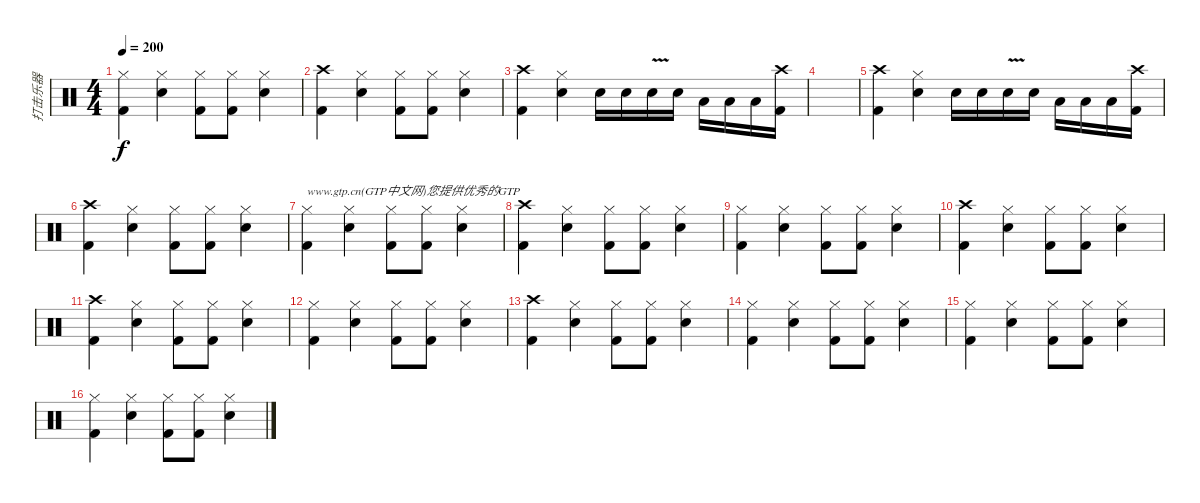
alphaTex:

\track ("打击乐器" "打击乐器") {instrument percussion}
\staff {score}
\articulation defaults
\ts (4 4)
\tempo 200
\clef neutral
\ks c
("Hi-Hat (closed)" "Kick (hit) 2").4{dy f} ("Hi-Hat (closed)" "Snare (hit) 2").4 ("Hi-Hat (closed)" "Kick (hit) 2").8 ("Hi-Hat (closed)" "Kick (hit) 2").8 ("Hi-Hat (closed)" "Snare (hit) 2").4 |
("Crash high (hit)" "Kick (hit) 2").4 ("Hi-Hat (closed)" "Snare (hit) 2").4 ("Hi-Hat (closed)" "Kick (hit) 2").8 ("Hi-Hat (closed)" "Kick (hit) 2").8 ("Hi-Hat (closed)" "Snare (hit) 2").4 |
("Crash high (hit)" "Kick (hit) 2").4 ("Hi-Hat (closed)" "Snare (hit) 2").4 "Snare (hit) 2".16 "Snare (hit) 2".16 "Snare (hit) 2"{v}.16 "Snare (hit) 2".16 "Low Floor Tom (hit)".16 "Low Floor Tom (hit)".16 "Low Tom (hit)".16 ("Crash high (hit)" "Kick (hit) 2").16 |
|
("Crash high (hit)" "Kick (hit) 2").4 ("Hi-Hat (closed)" "Snare (hit) 2").4 "Snare (hit) 2".16 "Snare (hit) 2".16 "Snare (hit) 2"{v}.16 "Snare (hit) 2".16 "Low Floor Tom (hit)".16 "Low Floor Tom (hit)".16 "Low Tom (hit)".16 ("Crash high (hit)" "Kick (hit) 2").16 |
("Crash high (hit)" "Kick (hit) 2").4 ("Hi-Hat (closed)" "Snare (hit) 2").4 ("Hi-Hat (closed)" "Kick (hit) 2").8 ("Hi-Hat (closed)" "Kick (hit) 2").8 ("Hi-Hat (closed)" "Snare (hit) 2").4 |
("Hi-Hat (closed)" "Kick (hit) 2").4{txt "www.gtp.cn(GTP中文网)您提供优秀的GTP"} ("Hi-Hat (closed)" "Snare (hit) 2").4 ("Hi-Hat (closed)" "Kick (hit) 2").8 ("Hi-Hat (closed)" "Kick (hit) 2").8 ("Hi-Hat (closed)" "Snare (hit) 2").4 |
("Crash high (hit)" "Kick (hit) 2").4 ("Hi-Hat (closed)" "Snare (hit) 2").4 ("Hi-Hat (closed)" "Kick (hit) 2").8 ("Hi-Hat (closed)" "Kick (hit) 2").8 ("Hi-Hat (closed)" "Snare (hit) 2").4 |
("Hi-Hat (closed)" "Kick (hit) 2").4 ("Hi-Hat (closed)" "Snare (hit) 2").4 ("Hi-Hat (closed)" "Kick (hit) 2").8 ("Hi-Hat (closed)" "Kick (hit) 2").8 ("Hi-Hat (closed)" "Snare (hit) 2").4 |
("Crash high (hit)" "Kick (hit) 2").4 ("Hi-Hat (closed)" "Snare (hit) 2").4 ("Hi-Hat (closed)" "Kick (hit) 2").8 ("Hi-Hat (closed)" "Kick (hit) 2").8 ("Hi-Hat (closed)" "Snare (hit) 2").4 |
("Crash high (hit)" "Kick (hit) 2").4 ("Hi-Hat (closed)" "Snare (hit) 2").4 ("Hi-Hat (closed)" "Kick (hit) 2").8 ("Hi-Hat (closed)" "Kick (hit) 2").8 ("Hi-Hat (closed)" "Snare (hit) 2").4 |
("Hi-Hat (closed)" "Kick (hit) 2").4 ("Hi-Hat (closed)" "Snare (hit) 2").4 ("Hi-Hat (closed)" "Kick (hit) 2").8 ("Hi-Hat (closed)" "Kick (hit) 2").8 ("Hi-Hat (closed)" "Snare (hit) 2").4 |
("Crash high (hit)" "Kick (hit) 2").4 ("Hi-Hat (closed)" "Snare (hit) 2").4 ("Hi-Hat (closed)" "Kick (hit) 2").8 ("Hi-Hat (closed)" "Kick (hit) 2").8 ("Hi-Hat (closed)" "Snare (hit) 2").4 |
("Hi-Hat (closed)" "Kick (hit) 2").4 ("Hi-Hat (closed)" "Snare (hit) 2").4 ("Hi-Hat (closed)" "Kick (hit) 2").8 ("Hi-Hat (closed)" "Kick (hit) 2").8 ("Hi-Hat (closed)" "Snare (hit) 2").4 |
("Hi-Hat (closed)" "Kick (hit) 2").4 ("Hi-Hat (closed)" "Snare (hit) 2").4 ("Hi-Hat (closed)" "Kick (hit) 2").8 ("Hi-Hat (closed)" "Kick (hit) 2").8 ("Hi-Hat (closed)" "Snare (hit) 2").4 |
("Hi-Hat (closed)" "Kick (hit) 2").4 ("Hi-Hat (closed)" "Snare (hit) 2").4 ("Hi-Hat (closed)" "Kick (hit) 2").8 ("Hi-Hat (closed)" "Kick (hit) 2").8 ("Hi-Hat (closed)" "Snare (hit) 2").4
